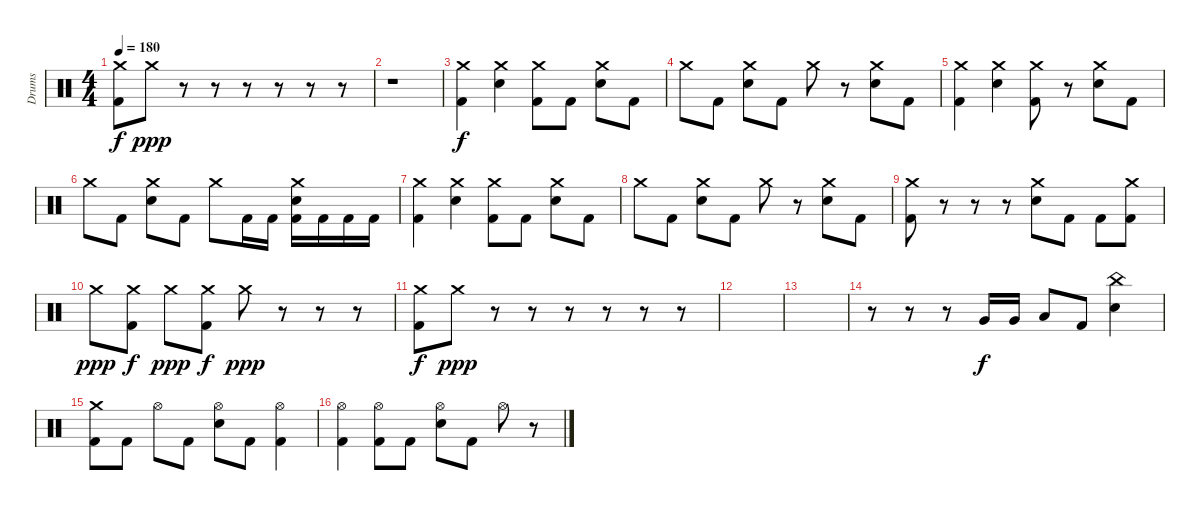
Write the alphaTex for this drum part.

\track ("Drums" "Drums") {instrument percussion}
\staff
\articulation defaults
\ts (4 4)
\tempo 180
\clef neutral
\ks c
("Crash medium (hit)" "Kick (hit) 2").8{dy f} "Crash medium (hit)".8{dy ppp} r.8 r.8 r.8 r.8 r.8 r.8 |
r.1 |
("Crash medium (hit)" "Kick (hit) 2").4{dy f} ("Crash medium (hit)" "Electric Snare (hit)").4 ("Crash medium (hit)" "Kick (hit) 2").8 "Kick (hit) 2".8 ("Crash medium (hit)" "Electric Snare (hit)").8 "Kick (hit) 2".8 |
"Crash medium (hit)".8 "Kick (hit) 2".8 ("Crash medium (hit)" "Electric Snare (hit)").8 "Kick (hit) 2".8 "Crash medium (hit)".8 r.8 ("Crash medium (hit)" "Electric Snare (hit)").8 "Kick (hit) 2".8 |
("Crash medium (hit)" "Kick (hit) 2").4 ("Crash medium (hit)" "Electric Snare (hit)").4 ("Crash medium (hit)" "Kick (hit) 2").8 r.8 ("Crash medium (hit)" "Electric Snare (hit)").8 "Kick (hit) 2".8 |
"Crash medium (hit)".8 "Kick (hit) 2".8 ("Crash medium (hit)" "Electric Snare (hit)").8 "Kick (hit) 2".8 "Crash medium (hit)".8 "Kick (hit) 2".16 "Kick (hit) 2".16 ("Crash medium (hit)" "Electric Snare (hit)" "Kick (hit) 2").16 "Kick (hit) 2".16 "Kick (hit) 2".16 "Kick (hit) 2".16 |
("Crash medium (hit)" "Kick (hit) 2").4 ("Crash medium (hit)" "Electric Snare (hit)").4 ("Crash medium (hit)" "Kick (hit) 2").8 "Kick (hit) 2".8 ("Crash medium (hit)" "Electric Snare (hit)").8 "Kick (hit) 2".8 |
"Crash medium (hit)".8 "Kick (hit) 2".8 ("Crash medium (hit)" "Electric Snare (hit)").8 "Kick (hit) 2".8 "Crash medium (hit)".8 r.8 ("Crash medium (hit)" "Electric Snare (hit)").8 "Kick (hit) 2".8 |
("Crash medium (hit)" "Kick (hit) 2").8 r.8 r.8 r.8 ("Crash medium (hit)" "Electric Snare (hit)").8 "Kick (hit) 2".8 "Kick (hit) 2".8 ("Crash medium (hit)" "Kick (hit) 2").8 |
"Crash medium (hit)".8{dy ppp} ("Crash medium (hit)" "Kick (hit) 2").8{dy f} "Crash medium (hit)".8{dy ppp} ("Crash medium (hit)" "Kick (hit) 2").8{dy f} "Crash medium (hit)".8{dy ppp} r.8 r.8 r.8 |
("Crash medium (hit)" "Kick (hit) 2").8{dy f} "Crash medium (hit)".8{dy ppp} r.8 r.8 r.8 r.8 r.8 r.8 |
|
|
r.8 r.8 r.8 "Very Low Tom (hit)".16{dy f} "Very Low Tom (hit)".16 "Low Floor Tom (hit)".8 "Kick (hit) 2".8 ("China (hit)" "Electric Snare (hit)").4 |
("Crash medium (hit)" "Kick (hit) 2").8 "Kick (hit) 2".8 "Hi-Hat (open)".8 "Kick (hit) 2".8 ("Hi-Hat (open)" "Electric Snare (hit)").8 "Kick (hit) 2".8 ("Hi-Hat (open)" "Kick (hit) 2").4 |
("Hi-Hat (open)" "Kick (hit) 2").4 ("Hi-Hat (open)" "Kick (hit) 2").8 "Kick (hit) 2".8 ("Hi-Hat (open)" "Electric Snare (hit)").8 "Kick (hit) 2".8 "Hi-Hat (open)".8 r.8
